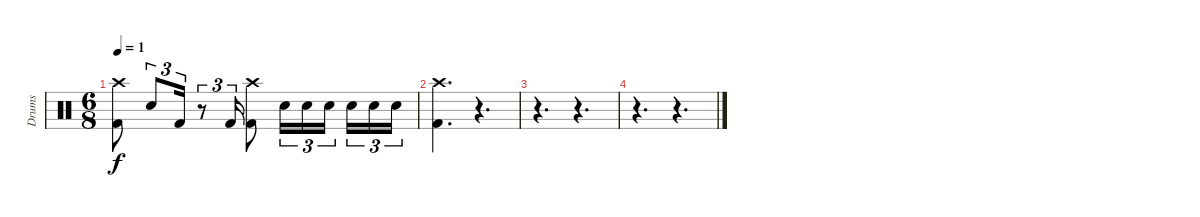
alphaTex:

\track ("Drums" "Drums") {instrument percussion}
\staff {score}
\articulation defaults
\ts (6 8)
\tempo 1
\clef neutral
\ks c
("Crash high (hit)" "Kick (hit) 2").8{dy f} "Snare (hit) 2".8{tu (3 2)} "Kick (hit) 2".16{tu (3 2)} r.8{tu (3 2)} "Kick (hit) 2".16{tu (3 2)} ("Crash high (hit)" "Kick (hit) 2").8 "Snare (hit) 2".16{tu (3 2)} "Snare (hit) 2".16{tu (3 2)} "Snare (hit) 2".16{tu (3 2)} "Snare (hit) 2".16{tu (3 2)} "Snare (hit) 2".16{tu (3 2)} "Snare (hit) 2".16{tu (3 2)} |
("Crash high (hit)" "Kick (hit) 2").4{d} r.4{d} |
r.4{d} r.4{d} |
r.4{d} r.4{d}
